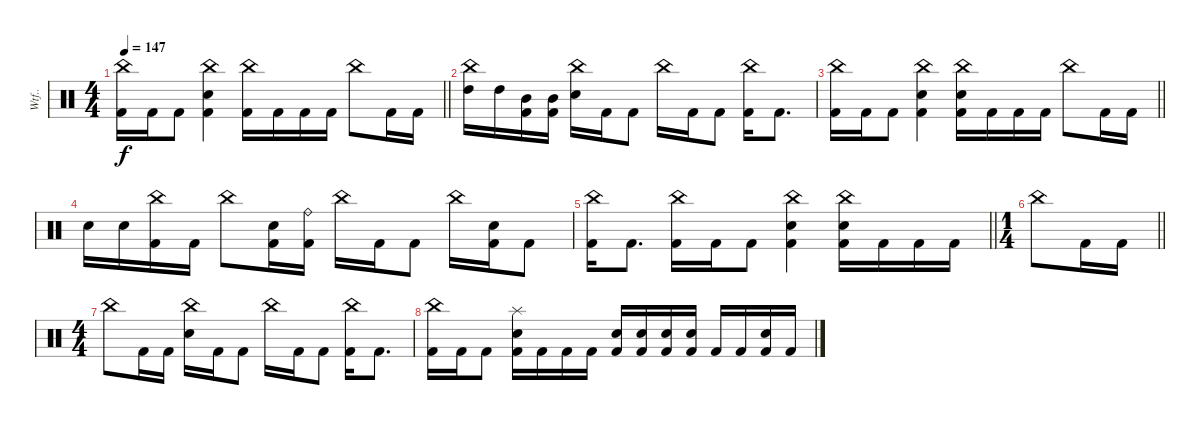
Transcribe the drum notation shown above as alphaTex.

\track ("Wtf.." "Wtf..") {instrument percussion}
\staff {score}
\articulation defaults
\ts (4 4)
\tempo 147
\clef neutral
\barLineRight lightlight
\ks c
("China (hit)" "Kick (hit) 2").16{dy f} "Kick (hit) 2".16 "Kick (hit) 2".8 ("China (hit)" "Electric Snare (hit)" "Kick (hit) 2").4 ("China (hit)" "Kick (hit) 2").16 "Kick (hit) 2".16 "Kick (hit) 2".16 "Kick (hit) 2".16 "China (hit)".8 "Kick (hit) 2".16 "Kick (hit) 2".16 |
("China (hit)" "High Tom (hit)").16 "High Tom (hit)".16 ("Mid Tom (hit)" "Kick (hit) 2").16 ("Mid Tom (hit)" "Kick (hit) 2").16 ("China (hit)" "Electric Snare (hit)").16 "Kick (hit) 2".16 "Kick (hit) 2".8 "China (hit)".16 "Kick (hit) 2".16 "Kick (hit) 2".8 ("China (hit)" "Kick (hit) 2").16 "Kick (hit) 2".8{d} |
\barLineRight lightlight
("China (hit)" "Kick (hit) 2").16 "Kick (hit) 2".16 "Kick (hit) 2".8 ("China (hit)" "Electric Snare (hit)" "Kick (hit) 2").4 ("China (hit)" "Electric Snare (hit)" "Kick (hit) 2").16 "Kick (hit) 2".16 "Kick (hit) 2".16 "Kick (hit) 2".16 "China (hit)".8 "Kick (hit) 2".16 "Kick (hit) 2".16 |
"Electric Snare (hit)".16 "Electric Snare (hit)".16 ("China (hit)" "Kick (hit) 2").16 "Kick (hit) 2".16 "China (hit)".8 ("Electric Snare (hit)" "Kick (hit) 2").16 ("Ride (bell)" "Kick (hit) 2").16 "China (hit)".16 "Kick (hit) 2".16 "Kick (hit) 2".8 "China (hit)".16 ("Electric Snare (hit)" "Kick (hit) 2").16 "Kick (hit) 2".8 |
\barLineRight lightlight
("China (hit)" "Kick (hit) 2").16 "Kick (hit) 2".8{d} ("China (hit)" "Kick (hit) 2").16 "Kick (hit) 2".16 "Kick (hit) 2".8 ("China (hit)" "Electric Snare (hit)" "Kick (hit) 2").4 ("China (hit)" "Electric Snare (hit)" "Kick (hit) 2").16 "Kick (hit) 2".16 "Kick (hit) 2".16 "Kick (hit) 2".16 |
\ts (1 4)
\barLineRight lightlight "China (hit)".8 "Kick (hit) 2".16 "Kick (hit) 2".16
|
\ts (4 4)
"China (hit)".8 "Kick (hit) 2".16 "Kick (hit) 2".16 ("China (hit)" "Electric Snare (hit)").16 "Kick (hit) 2".16 "Kick (hit) 2".8 "China (hit)".16 "Kick (hit) 2".16 "Kick (hit) 2".8 ("China (hit)" "Kick (hit) 2").16 "Kick (hit) 2".8{d} |
("China (hit)" "Kick (hit) 2").16 "Kick (hit) 2".16 "Kick (hit) 2".8 ("Splash (hit)" "Electric Snare (hit)" "Kick (hit) 2").16 "Kick (hit) 2".16 "Kick (hit) 2".16 "Kick (hit) 2".16 ("Electric Snare (hit)" "Kick (hit) 2").16 ("Electric Snare (hit)" "Kick (hit) 2").16 ("Electric Snare (hit)" "Kick (hit) 2").16 ("Electric Snare (hit)" "Kick (hit) 2").16 "Kick (hit) 2".16 "Kick (hit) 2".16 ("Electric Snare (hit)" "Kick (hit) 2").16 "Kick (hit) 2".16
